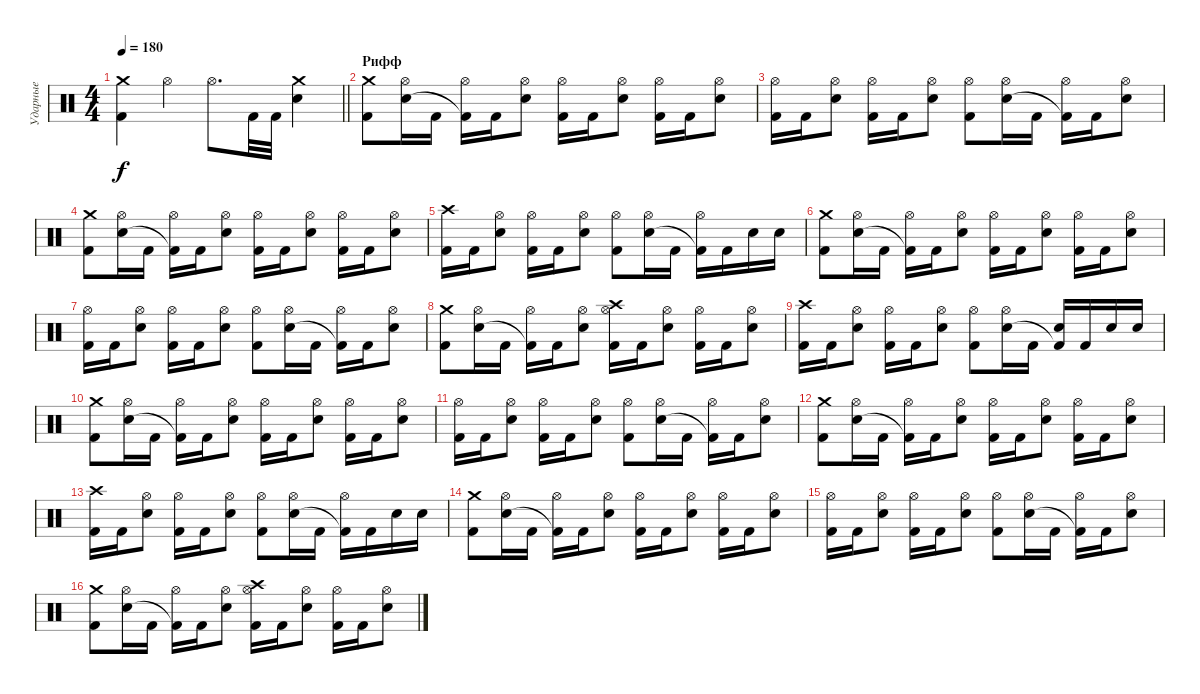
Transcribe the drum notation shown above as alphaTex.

\track ("Ударные" "Ударные") {instrument percussion}
\staff {score}
\articulation defaults
\ts (4 4)
\tempo 180
\clef neutral
\barLineRight lightlight
\ks c
("Kick (hit) 2" "Crash medium (hit)").4{dy f} "Hi-Hat (open)".4 "Hi-Hat (open)".8{d} "Kick (hit) 2".32 "Kick (hit) 2".32 ("Crash medium (hit)" "Snare (hit) 2").4 |
\section ("" "Рифф")
("Crash medium (hit)" "Kick (hit) 2").8 ("Hi-Hat (open)" "Snare (hit) 2").16 "Kick (hit) 2".16 ("Hi-Hat (open)" "Kick (hit) 2"{t}).16 "Kick (hit) 2".16 ("Hi-Hat (open)" "Snare (hit) 2").8 ("Hi-Hat (open)" "Kick (hit) 2").16 "Kick (hit) 2".16 ("Hi-Hat (open)" "Snare (hit) 2").8 ("Hi-Hat (open)" "Kick (hit) 2").16 "Kick (hit) 2".16 ("Hi-Hat (open)" "Snare (hit) 2").8 |
("Hi-Hat (open)" "Kick (hit) 2").16 "Kick (hit) 2".16 ("Hi-Hat (open)" "Snare (hit) 2").8 ("Hi-Hat (open)" "Kick (hit) 2").16 "Kick (hit) 2".16 ("Hi-Hat (open)" "Snare (hit) 2").8 ("Hi-Hat (open)" "Kick (hit) 2").8 ("Hi-Hat (open)" "Snare (hit) 2").16 "Kick (hit) 2".16 ("Hi-Hat (open)" "Kick (hit) 2"{t}).16 "Kick (hit) 2".16 ("Hi-Hat (open)" "Snare (hit) 2").8 |
("Crash medium (hit)" "Kick (hit) 2").8 ("Hi-Hat (open)" "Snare (hit) 2").16 "Kick (hit) 2".16 ("Hi-Hat (open)" "Kick (hit) 2"{t}).16 "Kick (hit) 2".16 ("Hi-Hat (open)" "Snare (hit) 2").8 ("Hi-Hat (open)" "Kick (hit) 2").16 "Kick (hit) 2".16 ("Hi-Hat (open)" "Snare (hit) 2").8 ("Hi-Hat (open)" "Kick (hit) 2").16 "Kick (hit) 2".16 ("Hi-Hat (open)" "Snare (hit) 2").8 |
("Crash high (hit)" "Kick (hit) 2").16 "Kick (hit) 2".16 ("Hi-Hat (open)" "Snare (hit) 2").8 ("Hi-Hat (open)" "Kick (hit) 2").16 "Kick (hit) 2".16 ("Hi-Hat (open)" "Snare (hit) 2").8 ("Hi-Hat (open)" "Kick (hit) 2").8 ("Hi-Hat (open)" "Snare (hit) 2").16 "Kick (hit) 2".16 ("Hi-Hat (open)" "Kick (hit) 2"{t}).16 "Kick (hit) 2".16 "Snare (hit) 2".16 "Snare (hit) 2".16 |
("Crash medium (hit)" "Kick (hit) 2").8 ("Hi-Hat (open)" "Snare (hit) 2").16 "Kick (hit) 2".16 ("Hi-Hat (open)" "Kick (hit) 2"{t}).16 "Kick (hit) 2".16 ("Hi-Hat (open)" "Snare (hit) 2").8 ("Hi-Hat (open)" "Kick (hit) 2").16 "Kick (hit) 2".16 ("Hi-Hat (open)" "Snare (hit) 2").8 ("Hi-Hat (open)" "Kick (hit) 2").16 "Kick (hit) 2".16 ("Hi-Hat (open)" "Snare (hit) 2").8 |
("Hi-Hat (open)" "Kick (hit) 2").16 "Kick (hit) 2".16 ("Hi-Hat (open)" "Snare (hit) 2").8 ("Hi-Hat (open)" "Kick (hit) 2").16 "Kick (hit) 2".16 ("Hi-Hat (open)" "Snare (hit) 2").8 ("Hi-Hat (open)" "Kick (hit) 2").8 ("Hi-Hat (open)" "Snare (hit) 2").16 "Kick (hit) 2".16 ("Hi-Hat (open)" "Kick (hit) 2"{t}).16 "Kick (hit) 2".16 ("Hi-Hat (open)" "Snare (hit) 2").8 |
("Crash medium (hit)" "Kick (hit) 2").8 ("Hi-Hat (open)" "Snare (hit) 2").16 "Kick (hit) 2".16 ("Hi-Hat (open)" "Kick (hit) 2"{t}).16 "Kick (hit) 2".16 ("Hi-Hat (open)" "Snare (hit) 2").8 ("Crash high (hit)" "Hi-Hat (open)" "Kick (hit) 2").16 "Kick (hit) 2".16 ("Hi-Hat (open)" "Snare (hit) 2").8 ("Hi-Hat (open)" "Kick (hit) 2").16 "Kick (hit) 2".16 ("Hi-Hat (open)" "Snare (hit) 2").8 |
("Crash high (hit)" "Kick (hit) 2").16 "Kick (hit) 2".16 ("Hi-Hat (open)" "Snare (hit) 2").8 ("Hi-Hat (open)" "Kick (hit) 2").16 "Kick (hit) 2".16 ("Hi-Hat (open)" "Snare (hit) 2").8 ("Hi-Hat (open)" "Kick (hit) 2").8 ("Hi-Hat (open)" "Snare (hit) 2").16 "Kick (hit) 2".16 ("Snare (hit) 2" "Kick (hit) 2"{t}).16 "Kick (hit) 2".16 "Snare (hit) 2".16 "Snare (hit) 2".16 |
("Crash medium (hit)" "Kick (hit) 2").8 ("Hi-Hat (open)" "Snare (hit) 2").16 "Kick (hit) 2".16 ("Hi-Hat (open)" "Kick (hit) 2"{t}).16 "Kick (hit) 2".16 ("Hi-Hat (open)" "Snare (hit) 2").8 ("Hi-Hat (open)" "Kick (hit) 2").16 "Kick (hit) 2".16 ("Hi-Hat (open)" "Snare (hit) 2").8 ("Hi-Hat (open)" "Kick (hit) 2").16 "Kick (hit) 2".16 ("Hi-Hat (open)" "Snare (hit) 2").8 |
("Hi-Hat (open)" "Kick (hit) 2").16 "Kick (hit) 2".16 ("Hi-Hat (open)" "Snare (hit) 2").8 ("Hi-Hat (open)" "Kick (hit) 2").16 "Kick (hit) 2".16 ("Hi-Hat (open)" "Snare (hit) 2").8 ("Hi-Hat (open)" "Kick (hit) 2").8 ("Hi-Hat (open)" "Snare (hit) 2").16 "Kick (hit) 2".16 ("Hi-Hat (open)" "Kick (hit) 2"{t}).16 "Kick (hit) 2".16 ("Hi-Hat (open)" "Snare (hit) 2").8 |
("Crash medium (hit)" "Kick (hit) 2").8 ("Hi-Hat (open)" "Snare (hit) 2").16 "Kick (hit) 2".16 ("Hi-Hat (open)" "Kick (hit) 2"{t}).16 "Kick (hit) 2".16 ("Hi-Hat (open)" "Snare (hit) 2").8 ("Hi-Hat (open)" "Kick (hit) 2").16 "Kick (hit) 2".16 ("Hi-Hat (open)" "Snare (hit) 2").8 ("Hi-Hat (open)" "Kick (hit) 2").16 "Kick (hit) 2".16 ("Hi-Hat (open)" "Snare (hit) 2").8 |
("Crash high (hit)" "Kick (hit) 2").16 "Kick (hit) 2".16 ("Hi-Hat (open)" "Snare (hit) 2").8 ("Hi-Hat (open)" "Kick (hit) 2").16 "Kick (hit) 2".16 ("Hi-Hat (open)" "Snare (hit) 2").8 ("Hi-Hat (open)" "Kick (hit) 2").8 ("Hi-Hat (open)" "Snare (hit) 2").16 "Kick (hit) 2".16 ("Hi-Hat (open)" "Kick (hit) 2"{t}).16 "Kick (hit) 2".16 "Snare (hit) 2".16 "Snare (hit) 2".16 |
("Crash medium (hit)" "Kick (hit) 2").8 ("Hi-Hat (open)" "Snare (hit) 2").16 "Kick (hit) 2".16 ("Hi-Hat (open)" "Kick (hit) 2"{t}).16 "Kick (hit) 2".16 ("Hi-Hat (open)" "Snare (hit) 2").8 ("Hi-Hat (open)" "Kick (hit) 2").16 "Kick (hit) 2".16 ("Hi-Hat (open)" "Snare (hit) 2").8 ("Hi-Hat (open)" "Kick (hit) 2").16 "Kick (hit) 2".16 ("Hi-Hat (open)" "Snare (hit) 2").8 |
("Hi-Hat (open)" "Kick (hit) 2").16 "Kick (hit) 2".16 ("Hi-Hat (open)" "Snare (hit) 2").8 ("Hi-Hat (open)" "Kick (hit) 2").16 "Kick (hit) 2".16 ("Hi-Hat (open)" "Snare (hit) 2").8 ("Hi-Hat (open)" "Kick (hit) 2").8 ("Hi-Hat (open)" "Snare (hit) 2").16 "Kick (hit) 2".16 ("Hi-Hat (open)" "Kick (hit) 2"{t}).16 "Kick (hit) 2".16 ("Hi-Hat (open)" "Snare (hit) 2").8 |
("Crash medium (hit)" "Kick (hit) 2").8 ("Hi-Hat (open)" "Snare (hit) 2").16 "Kick (hit) 2".16 ("Hi-Hat (open)" "Kick (hit) 2"{t}).16 "Kick (hit) 2".16 ("Hi-Hat (open)" "Snare (hit) 2").8 ("Crash high (hit)" "Hi-Hat (open)" "Kick (hit) 2").16 "Kick (hit) 2".16 ("Hi-Hat (open)" "Snare (hit) 2").8 ("Hi-Hat (open)" "Kick (hit) 2").16 "Kick (hit) 2".16 ("Hi-Hat (open)" "Snare (hit) 2").8
